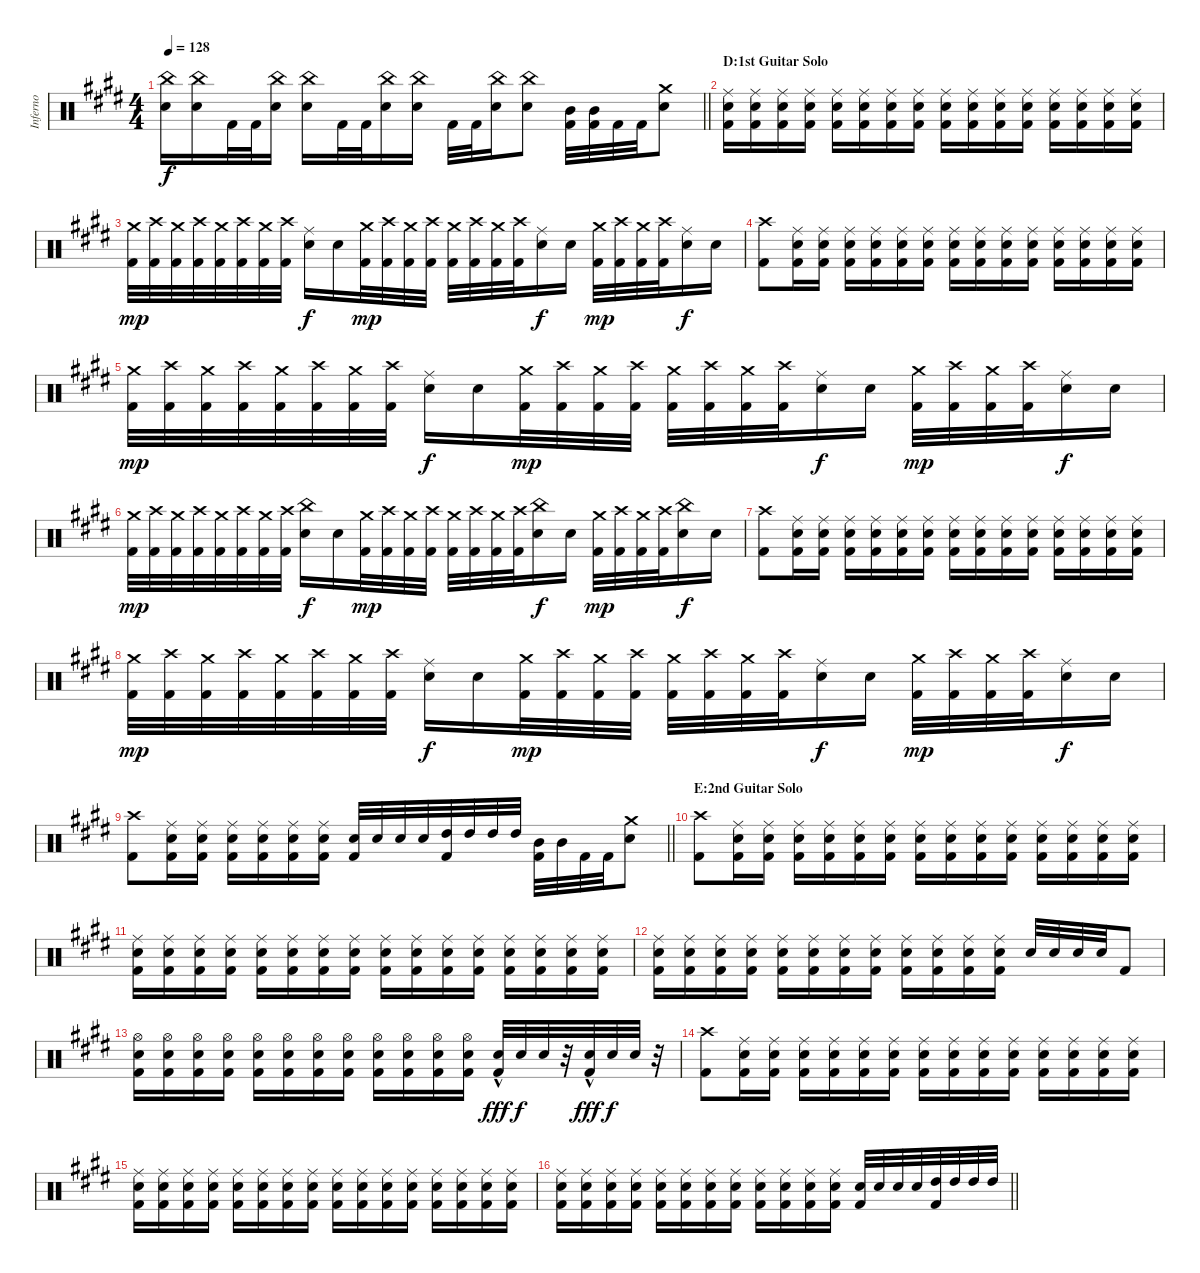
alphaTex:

\track ("Inferno" "Inferno") {instrument percussion}
\staff
\articulation defaults
\ts (4 4)
\tempo 128
\clef neutral
\barLineRight lightlight
\ks c#minor
("China (hit)" "Snare (hit) 2").16{dy f} ("China (hit)" "Snare (hit) 2").16 "Kick (hit) 2".32 "Kick (hit) 2".32 ("China (hit)" "Snare (hit) 2").16 ("China (hit)" "Snare (hit) 2").16 "Kick (hit) 2".32 "Kick (hit) 2".32 ("China (hit)" "Snare (hit) 2").16 ("China (hit)" "Snare (hit) 2").16 "Kick (hit) 2".32 "Kick (hit) 2".32 ("China (hit)" "Snare (hit) 2").16 ("China (hit)" "Snare (hit) 2").8 ("Mid Tom (hit)" "Kick (hit) 2").32 ("Mid Tom (hit)" "Kick (hit) 2").32 "Kick (hit) 2".32 "Kick (hit) 2".32 ("Crash medium (hit)" "Snare (hit) 2").8 |
\section ("" "D:1st Guitar Solo")
("Ride (middle)" "Snare (hit) 2" "Kick (hit) 2").16 ("Ride (middle)" "Snare (hit) 2" "Kick (hit) 2").16 ("Ride (middle)" "Snare (hit) 2" "Kick (hit) 2").16 ("Ride (middle)" "Snare (hit) 2" "Kick (hit) 2").16 ("Ride (middle)" "Snare (hit) 2" "Kick (hit) 2").16 ("Ride (middle)" "Snare (hit) 2" "Kick (hit) 2").16 ("Ride (middle)" "Snare (hit) 2" "Kick (hit) 2").16 ("Ride (middle)" "Snare (hit) 2" "Kick (hit) 2").16 ("Ride (middle)" "Snare (hit) 2" "Kick (hit) 2").16 ("Ride (middle)" "Snare (hit) 2" "Kick (hit) 2").16 ("Ride (middle)" "Snare (hit) 2" "Kick (hit) 2").16 ("Ride (middle)" "Snare (hit) 2" "Kick (hit) 2").16 ("Ride (middle)" "Snare (hit) 2" "Kick (hit) 2").16 ("Ride (middle)" "Snare (hit) 2" "Kick (hit) 2").16 ("Ride (middle)" "Snare (hit) 2" "Kick (hit) 2").16 ("Ride (middle)" "Snare (hit) 2" "Kick (hit) 2").16 |
("Crash medium (hit)" "Kick (hit) 2").32{dy mp} ("Crash high (hit)" "Kick (hit) 2").32 ("Crash medium (hit)" "Kick (hit) 2").32 ("Crash high (hit)" "Kick (hit) 2").32 ("Crash medium (hit)" "Kick (hit) 2").32 ("Crash high (hit)" "Kick (hit) 2").32 ("Crash medium (hit)" "Kick (hit) 2").32 ("Crash high (hit)" "Kick (hit) 2").32 ("Ride (middle)" "Snare (hit) 2").16{dy f} "Snare (hit) 2".16 ("Crash medium (hit)" "Kick (hit) 2").32{dy mp} ("Crash high (hit)" "Kick (hit) 2").32 ("Crash medium (hit)" "Kick (hit) 2").32 ("Crash high (hit)" "Kick (hit) 2").32 ("Crash medium (hit)" "Kick (hit) 2").32 ("Crash high (hit)" "Kick (hit) 2").32 ("Crash medium (hit)" "Kick (hit) 2").32 ("Crash high (hit)" "Kick (hit) 2").32 ("Ride (middle)" "Snare (hit) 2").16{dy f} "Snare (hit) 2".16 ("Crash medium (hit)" "Kick (hit) 2").32{dy mp} ("Crash high (hit)" "Kick (hit) 2").32 ("Crash medium (hit)" "Kick (hit) 2").32 ("Crash high (hit)" "Kick (hit) 2").32 ("Ride (middle)" "Snare (hit) 2").16{dy f} "Snare (hit) 2".16 |
("Crash high (hit)" "Kick (hit) 2").8 ("Ride (middle)" "Snare (hit) 2" "Kick (hit) 2").16 ("Ride (middle)" "Snare (hit) 2" "Kick (hit) 2").16 ("Ride (middle)" "Snare (hit) 2" "Kick (hit) 2").16 ("Ride (middle)" "Snare (hit) 2" "Kick (hit) 2").16 ("Ride (middle)" "Snare (hit) 2" "Kick (hit) 2").16 ("Ride (middle)" "Snare (hit) 2" "Kick (hit) 2").16 ("Ride (middle)" "Snare (hit) 2" "Kick (hit) 2").16 ("Ride (middle)" "Snare (hit) 2" "Kick (hit) 2").16 ("Ride (middle)" "Snare (hit) 2" "Kick (hit) 2").16 ("Ride (middle)" "Snare (hit) 2" "Kick (hit) 2").16 ("Ride (middle)" "Snare (hit) 2" "Kick (hit) 2").16 ("Ride (middle)" "Snare (hit) 2" "Kick (hit) 2").16 ("Ride (middle)" "Snare (hit) 2" "Kick (hit) 2").16 ("Ride (middle)" "Snare (hit) 2" "Kick (hit) 2").16 |
("Crash medium (hit)" "Kick (hit) 2").32{dy mp} ("Crash high (hit)" "Kick (hit) 2").32 ("Crash medium (hit)" "Kick (hit) 2").32 ("Crash high (hit)" "Kick (hit) 2").32 ("Crash medium (hit)" "Kick (hit) 2").32 ("Crash high (hit)" "Kick (hit) 2").32 ("Crash medium (hit)" "Kick (hit) 2").32 ("Crash high (hit)" "Kick (hit) 2").32 ("Ride (middle)" "Snare (hit) 2").16{dy f} "Snare (hit) 2".16 ("Crash medium (hit)" "Kick (hit) 2").32{dy mp} ("Crash high (hit)" "Kick (hit) 2").32 ("Crash medium (hit)" "Kick (hit) 2").32 ("Crash high (hit)" "Kick (hit) 2").32 ("Crash medium (hit)" "Kick (hit) 2").32 ("Crash high (hit)" "Kick (hit) 2").32 ("Crash medium (hit)" "Kick (hit) 2").32 ("Crash high (hit)" "Kick (hit) 2").32 ("Ride (middle)" "Snare (hit) 2").16{dy f} "Snare (hit) 2".16 ("Crash medium (hit)" "Kick (hit) 2").32{dy mp} ("Crash high (hit)" "Kick (hit) 2").32 ("Crash medium (hit)" "Kick (hit) 2").32 ("Crash high (hit)" "Kick (hit) 2").32 ("Ride (middle)" "Snare (hit) 2").16{dy f} "Snare (hit) 2".16 |
("Crash medium (hit)" "Kick (hit) 2").32{dy mp} ("Crash high (hit)" "Kick (hit) 2").32 ("Crash medium (hit)" "Kick (hit) 2").32 ("Crash high (hit)" "Kick (hit) 2").32 ("Crash medium (hit)" "Kick (hit) 2").32 ("Crash high (hit)" "Kick (hit) 2").32 ("Crash medium (hit)" "Kick (hit) 2").32 ("Crash high (hit)" "Kick (hit) 2").32 ("China (hit)" "Snare (hit) 2").16{dy f} "Snare (hit) 2".16 ("Crash medium (hit)" "Kick (hit) 2").32{dy mp} ("Crash high (hit)" "Kick (hit) 2").32 ("Crash medium (hit)" "Kick (hit) 2").32 ("Crash high (hit)" "Kick (hit) 2").32 ("Crash medium (hit)" "Kick (hit) 2").32 ("Crash high (hit)" "Kick (hit) 2").32 ("Crash medium (hit)" "Kick (hit) 2").32 ("Crash high (hit)" "Kick (hit) 2").32 ("China (hit)" "Snare (hit) 2").16{dy f} "Snare (hit) 2".16 ("Crash medium (hit)" "Kick (hit) 2").32{dy mp} ("Crash high (hit)" "Kick (hit) 2").32 ("Crash medium (hit)" "Kick (hit) 2").32 ("Crash high (hit)" "Kick (hit) 2").32 ("China (hit)" "Snare (hit) 2").16{dy f} "Snare (hit) 2".16 |
("Crash high (hit)" "Kick (hit) 2").8 ("Ride (middle)" "Snare (hit) 2" "Kick (hit) 2").16 ("Ride (middle)" "Snare (hit) 2" "Kick (hit) 2").16 ("Ride (middle)" "Snare (hit) 2" "Kick (hit) 2").16 ("Ride (middle)" "Snare (hit) 2" "Kick (hit) 2").16 ("Ride (middle)" "Snare (hit) 2" "Kick (hit) 2").16 ("Ride (middle)" "Snare (hit) 2" "Kick (hit) 2").16 ("Ride (middle)" "Snare (hit) 2" "Kick (hit) 2").16 ("Ride (middle)" "Snare (hit) 2" "Kick (hit) 2").16 ("Ride (middle)" "Snare (hit) 2" "Kick (hit) 2").16 ("Ride (middle)" "Snare (hit) 2" "Kick (hit) 2").16 ("Ride (middle)" "Snare (hit) 2" "Kick (hit) 2").16 ("Ride (middle)" "Snare (hit) 2" "Kick (hit) 2").16 ("Ride (middle)" "Snare (hit) 2" "Kick (hit) 2").16 ("Ride (middle)" "Snare (hit) 2" "Kick (hit) 2").16 |
("Crash medium (hit)" "Kick (hit) 2").32{dy mp} ("Crash high (hit)" "Kick (hit) 2").32 ("Crash medium (hit)" "Kick (hit) 2").32 ("Crash high (hit)" "Kick (hit) 2").32 ("Crash medium (hit)" "Kick (hit) 2").32 ("Crash high (hit)" "Kick (hit) 2").32 ("Crash medium (hit)" "Kick (hit) 2").32 ("Crash high (hit)" "Kick (hit) 2").32 ("Ride (middle)" "Snare (hit) 2").16{dy f} "Snare (hit) 2".16 ("Crash medium (hit)" "Kick (hit) 2").32{dy mp} ("Crash high (hit)" "Kick (hit) 2").32 ("Crash medium (hit)" "Kick (hit) 2").32 ("Crash high (hit)" "Kick (hit) 2").32 ("Crash medium (hit)" "Kick (hit) 2").32 ("Crash high (hit)" "Kick (hit) 2").32 ("Crash medium (hit)" "Kick (hit) 2").32 ("Crash high (hit)" "Kick (hit) 2").32 ("Ride (middle)" "Snare (hit) 2").16{dy f} "Snare (hit) 2".16 ("Crash medium (hit)" "Kick (hit) 2").32{dy mp} ("Crash high (hit)" "Kick (hit) 2").32 ("Crash medium (hit)" "Kick (hit) 2").32 ("Crash high (hit)" "Kick (hit) 2").32 ("Ride (middle)" "Snare (hit) 2").16{dy f} "Snare (hit) 2".16 |
\barLineRight lightlight
("Crash high (hit)" "Kick (hit) 2").8 ("Ride (middle)" "Snare (hit) 2" "Kick (hit) 2").16 ("Ride (middle)" "Snare (hit) 2" "Kick (hit) 2").16 ("Ride (middle)" "Snare (hit) 2" "Kick (hit) 2").16 ("Ride (middle)" "Snare (hit) 2" "Kick (hit) 2").16 ("Ride (middle)" "Snare (hit) 2" "Kick (hit) 2").16 ("Ride (middle)" "Snare (hit) 2" "Kick (hit) 2").16 ("Snare (hit) 2" "Kick (hit) 2").32 "Snare (hit) 2".32 "Snare (hit) 2".32 "Snare (hit) 2".32 ("High Tom (hit)" "Kick (hit) 2").32 "High Tom (hit)".32 "High Tom (hit)".32 "High Tom (hit)".32 ("Mid Tom (hit)" "Kick (hit) 2").32 "Mid Tom (hit)".32 "Kick (hit) 2".32 "Kick (hit) 2".32 ("Crash medium (hit)" "Snare (hit) 2").8 |
\section ("" "E:2nd Guitar Solo")
("Crash high (hit)" "Kick (hit) 2").8 ("Ride (middle)" "Snare (hit) 2" "Kick (hit) 2").16 ("Ride (middle)" "Snare (hit) 2" "Kick (hit) 2").16 ("Ride (middle)" "Snare (hit) 2" "Kick (hit) 2").16 ("Ride (middle)" "Snare (hit) 2" "Kick (hit) 2").16 ("Ride (middle)" "Snare (hit) 2" "Kick (hit) 2").16 ("Ride (middle)" "Snare (hit) 2" "Kick (hit) 2").16 ("Ride (middle)" "Snare (hit) 2" "Kick (hit) 2").16 ("Ride (middle)" "Snare (hit) 2" "Kick (hit) 2").16 ("Ride (middle)" "Snare (hit) 2" "Kick (hit) 2").16 ("Ride (middle)" "Snare (hit) 2" "Kick (hit) 2").16 ("Ride (middle)" "Snare (hit) 2" "Kick (hit) 2").16 ("Ride (middle)" "Snare (hit) 2" "Kick (hit) 2").16 ("Ride (middle)" "Snare (hit) 2" "Kick (hit) 2").16 ("Ride (middle)" "Snare (hit) 2" "Kick (hit) 2").16 |
("Ride (middle)" "Snare (hit) 2" "Kick (hit) 2").16 ("Ride (middle)" "Snare (hit) 2" "Kick (hit) 2").16 ("Ride (middle)" "Snare (hit) 2" "Kick (hit) 2").16 ("Ride (middle)" "Snare (hit) 2" "Kick (hit) 2").16 ("Ride (middle)" "Snare (hit) 2" "Kick (hit) 2").16 ("Ride (middle)" "Snare (hit) 2" "Kick (hit) 2").16 ("Ride (middle)" "Snare (hit) 2" "Kick (hit) 2").16 ("Ride (middle)" "Snare (hit) 2" "Kick (hit) 2").16 ("Ride (middle)" "Snare (hit) 2" "Kick (hit) 2").16 ("Ride (middle)" "Snare (hit) 2" "Kick (hit) 2").16 ("Ride (middle)" "Snare (hit) 2" "Kick (hit) 2").16 ("Ride (middle)" "Snare (hit) 2" "Kick (hit) 2").16 ("Ride (middle)" "Snare (hit) 2" "Kick (hit) 2").16 ("Ride (middle)" "Snare (hit) 2" "Kick (hit) 2").16 ("Ride (middle)" "Snare (hit) 2" "Kick (hit) 2").16 ("Ride (middle)" "Snare (hit) 2" "Kick (hit) 2").16 |
("Ride (middle)" "Snare (hit) 2" "Kick (hit) 2").16 ("Ride (middle)" "Snare (hit) 2" "Kick (hit) 2").16 ("Ride (middle)" "Snare (hit) 2" "Kick (hit) 2").16 ("Ride (middle)" "Snare (hit) 2" "Kick (hit) 2").16 ("Ride (middle)" "Snare (hit) 2" "Kick (hit) 2").16 ("Ride (middle)" "Snare (hit) 2" "Kick (hit) 2").16 ("Ride (middle)" "Snare (hit) 2" "Kick (hit) 2").16 ("Ride (middle)" "Snare (hit) 2" "Kick (hit) 2").16 ("Ride (middle)" "Snare (hit) 2" "Kick (hit) 2").16 ("Ride (middle)" "Snare (hit) 2" "Kick (hit) 2").16 ("Ride (middle)" "Snare (hit) 2" "Kick (hit) 2").16 ("Ride (middle)" "Snare (hit) 2" "Kick (hit) 2").16 "Snare (hit) 2".32 "Snare (hit) 2".32 "Snare (hit) 2".32 "Snare (hit) 2".32 "Kick (hit) 2".8 |
("Hi-Hat (open)" "Snare (hit) 2" "Kick (hit) 2").16 ("Hi-Hat (open)" "Snare (hit) 2" "Kick (hit) 2").16 ("Hi-Hat (open)" "Snare (hit) 2" "Kick (hit) 2").16 ("Hi-Hat (open)" "Snare (hit) 2" "Kick (hit) 2").16 ("Hi-Hat (open)" "Snare (hit) 2" "Kick (hit) 2").16 ("Hi-Hat (open)" "Snare (hit) 2" "Kick (hit) 2").16 ("Hi-Hat (open)" "Snare (hit) 2" "Kick (hit) 2").16 ("Hi-Hat (open)" "Snare (hit) 2" "Kick (hit) 2").16 ("Hi-Hat (open)" "Snare (hit) 2" "Kick (hit) 2").16 ("Hi-Hat (open)" "Snare (hit) 2" "Kick (hit) 2").16 ("Hi-Hat (open)" "Snare (hit) 2" "Kick (hit) 2").16 ("Hi-Hat (open)" "Snare (hit) 2" "Kick (hit) 2").16 ("Snare (hit) 2"{hac} "Kick (hit) 2").32{dy fff} "Snare (hit) 2".32{dy f} "Snare (hit) 2".32 r.32 ("Snare (hit) 2"{hac} "Kick (hit) 2").32{dy fff} "Snare (hit) 2".32{dy f} "Snare (hit) 2".32 r.32 |
("Crash high (hit)" "Kick (hit) 2").8 ("Ride (middle)" "Snare (hit) 2" "Kick (hit) 2").16 ("Ride (middle)" "Snare (hit) 2" "Kick (hit) 2").16 ("Ride (middle)" "Snare (hit) 2" "Kick (hit) 2").16 ("Ride (middle)" "Snare (hit) 2" "Kick (hit) 2").16 ("Ride (middle)" "Snare (hit) 2" "Kick (hit) 2").16 ("Ride (middle)" "Snare (hit) 2" "Kick (hit) 2").16 ("Ride (middle)" "Snare (hit) 2" "Kick (hit) 2").16 ("Ride (middle)" "Snare (hit) 2" "Kick (hit) 2").16 ("Ride (middle)" "Snare (hit) 2" "Kick (hit) 2").16 ("Ride (middle)" "Snare (hit) 2" "Kick (hit) 2").16 ("Ride (middle)" "Snare (hit) 2" "Kick (hit) 2").16 ("Ride (middle)" "Snare (hit) 2" "Kick (hit) 2").16 ("Ride (middle)" "Snare (hit) 2" "Kick (hit) 2").16 ("Ride (middle)" "Snare (hit) 2" "Kick (hit) 2").16 |
("Ride (middle)" "Snare (hit) 2" "Kick (hit) 2").16 ("Ride (middle)" "Snare (hit) 2" "Kick (hit) 2").16 ("Ride (middle)" "Snare (hit) 2" "Kick (hit) 2").16 ("Ride (middle)" "Snare (hit) 2" "Kick (hit) 2").16 ("Ride (middle)" "Snare (hit) 2" "Kick (hit) 2").16 ("Ride (middle)" "Snare (hit) 2" "Kick (hit) 2").16 ("Ride (middle)" "Snare (hit) 2" "Kick (hit) 2").16 ("Ride (middle)" "Snare (hit) 2" "Kick (hit) 2").16 ("Ride (middle)" "Snare (hit) 2" "Kick (hit) 2").16 ("Ride (middle)" "Snare (hit) 2" "Kick (hit) 2").16 ("Ride (middle)" "Snare (hit) 2" "Kick (hit) 2").16 ("Ride (middle)" "Snare (hit) 2" "Kick (hit) 2").16 ("Ride (middle)" "Snare (hit) 2" "Kick (hit) 2").16 ("Ride (middle)" "Snare (hit) 2" "Kick (hit) 2").16 ("Ride (middle)" "Snare (hit) 2" "Kick (hit) 2").16 ("Ride (middle)" "Snare (hit) 2" "Kick (hit) 2").16 |
\barLineRight lightlight
("Ride (middle)" "Snare (hit) 2" "Kick (hit) 2").16 ("Ride (middle)" "Snare (hit) 2" "Kick (hit) 2").16 ("Ride (middle)" "Snare (hit) 2" "Kick (hit) 2").16 ("Ride (middle)" "Snare (hit) 2" "Kick (hit) 2").16 ("Ride (middle)" "Snare (hit) 2" "Kick (hit) 2").16 ("Ride (middle)" "Snare (hit) 2" "Kick (hit) 2").16 ("Ride (middle)" "Snare (hit) 2" "Kick (hit) 2").16 ("Ride (middle)" "Snare (hit) 2" "Kick (hit) 2").16 ("Ride (middle)" "Snare (hit) 2" "Kick (hit) 2").16 ("Ride (middle)" "Snare (hit) 2" "Kick (hit) 2").16 ("Ride (middle)" "Snare (hit) 2" "Kick (hit) 2").16 ("Ride (middle)" "Snare (hit) 2" "Kick (hit) 2").16 ("Snare (hit) 2" "Kick (hit) 2").32 "Snare (hit) 2".32 "Snare (hit) 2".32 "Snare (hit) 2".32 ("High Tom (hit)" "Kick (hit) 2").32 "High Tom (hit)".32 "High Tom (hit)".32 "High Tom (hit)".32
